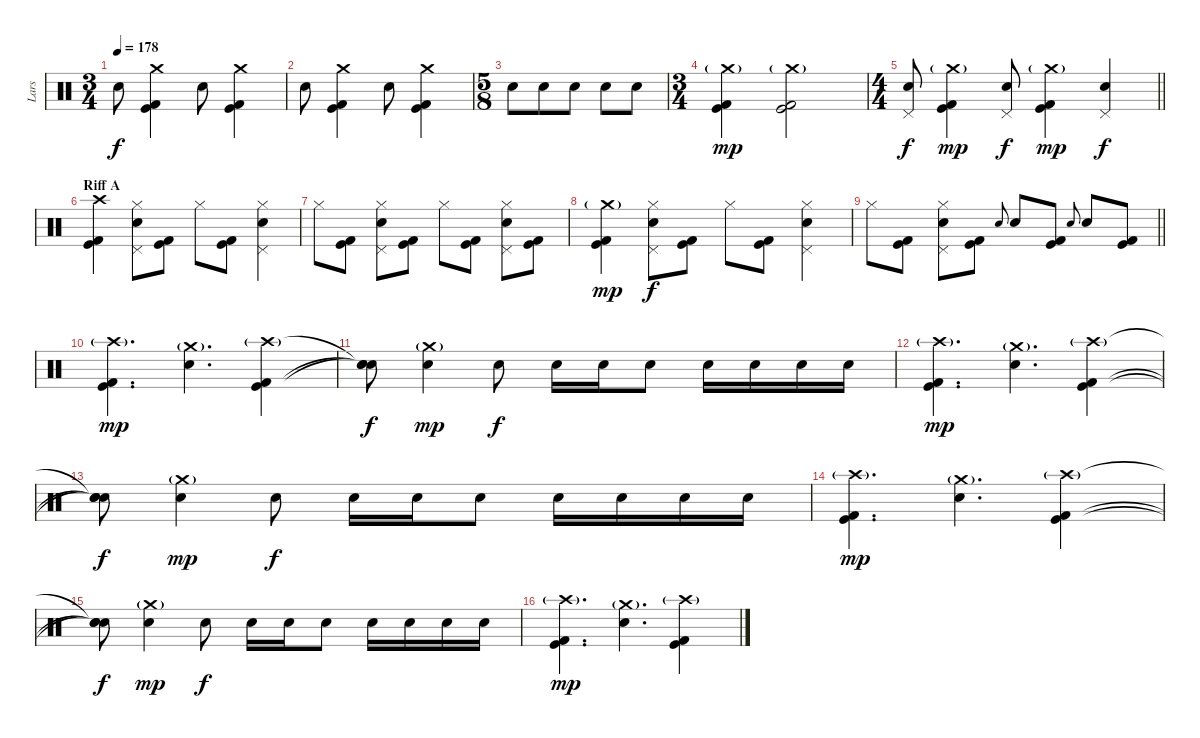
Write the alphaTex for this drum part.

\track ("Lars" "Lars") {instrument percussion}
\staff {score}
\articulation defaults
\ts (3 4)
\tempo 178
\clef neutral
\ks c "Electric Snare (hit)".8{dy f}
("Crash medium (hit)" "Kick (hit)" "Kick (hit) 2").4 "Electric Snare (hit)".8 ("Crash medium (hit)" "Kick (hit)" "Kick (hit) 2").4 |
"Electric Snare (hit)".8 ("Crash medium (hit)" "Kick (hit)" "Kick (hit) 2").4 "Electric Snare (hit)".8 ("Crash medium (hit)" "Kick (hit)" "Kick (hit) 2").4 |
\ts (5 8)
"Electric Snare (hit)".8 "Electric Snare (hit)".8 "Electric Snare (hit)".8 "Electric Snare (hit)".8 "Electric Snare (hit)".8 |
\ts (3 4)
("Crash medium (hit)"{g} "Kick (hit)" "Kick (hit) 2").4{dy mp} ("Crash medium (hit)"{g} "Kick (hit)" "Kick (hit) 2").2 |
\ts (4 4)
\barLineRight lightlight
("Pedal Hi-Hat (hit)" "Electric Snare (hit)").8{dy f} ("Crash medium (hit)"{g} "Kick (hit)" "Kick (hit) 2").4{dy mp} ("Pedal Hi-Hat (hit)" "Electric Snare (hit)").8{dy f} ("Crash medium (hit)"{g} "Kick (hit)" "Kick (hit) 2").4{dy mp} ("Pedal Hi-Hat (hit)" "Electric Snare (hit)").4{dy f} |
\section ("" "Riff A")
("Crash high (hit)" "Kick (hit)" "Kick (hit) 2").4 ("Hi-Hat (closed)" "Pedal Hi-Hat (hit)" "Electric Snare (hit)").8 ("Kick (hit)" "Kick (hit) 2").8 "Hi-Hat (closed)".8 ("Kick (hit)" "Kick (hit) 2").8 ("Hi-Hat (closed)" "Pedal Hi-Hat (hit)" "Electric Snare (hit)").4 |
"Hi-Hat (closed)".8 ("Kick (hit)" "Kick (hit) 2").8 ("Hi-Hat (closed)" "Pedal Hi-Hat (hit)" "Electric Snare (hit)").8 ("Kick (hit)" "Kick (hit) 2").8 "Hi-Hat (closed)".8 ("Kick (hit)" "Kick (hit) 2").8 ("Hi-Hat (closed)" "Pedal Hi-Hat (hit)" "Electric Snare (hit)").8 ("Kick (hit)" "Kick (hit) 2").8 |
("Crash medium (hit)"{g} "Kick (hit)" "Kick (hit) 2").4{dy mp} ("Hi-Hat (closed)" "Pedal Hi-Hat (hit)" "Electric Snare (hit)").8{dy f} ("Kick (hit)" "Kick (hit) 2").8 "Hi-Hat (closed)".8 ("Kick (hit)" "Kick (hit) 2").8 ("Hi-Hat (closed)" "Pedal Hi-Hat (hit)" "Electric Snare (hit)").4 |
\barLineRight lightlight "Hi-Hat (closed)".8
("Kick (hit)" "Kick (hit) 2").8 ("Hi-Hat (closed)" "Pedal Hi-Hat (hit)" "Electric Snare (hit)").8 ("Kick (hit)" "Kick (hit) 2").8 "Electric Snare (hit)".8{gr onbeat} "Electric Snare (hit)".8 ("Kick (hit)" "Kick (hit) 2").8 "Electric Snare (hit)".8{gr onbeat} "Electric Snare (hit)".8 ("Kick (hit)" "Kick (hit) 2").8 |
\section ("" "")
("Crash high (hit)"{g} "Kick (hit)" "Kick (hit) 2").4{d dy mp} ("Crash medium (hit)"{g} "Electric Snare (hit)").4{d} ("Crash high (hit)"{g} "Kick (hit)" "Kick (hit) 2").4 |
("Snare (hit)"{t} "Snare (hit)"{t} "Snare (hit)"{t}).8{dy f} ("Crash medium (hit)"{g} "Electric Snare (hit)").4{dy mp} "Electric Snare (hit)".8{dy f} "Electric Snare (hit)".16 "Electric Snare (hit)".16 "Electric Snare (hit)".8 "Electric Snare (hit)".16 "Electric Snare (hit)".16 "Electric Snare (hit)".16 "Electric Snare (hit)".16 |
("Crash high (hit)"{g} "Kick (hit)" "Kick (hit) 2").4{d dy mp} ("Crash medium (hit)"{g} "Electric Snare (hit)").4{d} ("Crash high (hit)"{g} "Kick (hit)" "Kick (hit) 2").4 |
("Snare (hit)"{t} "Snare (hit)"{t} "Snare (hit)"{t}).8{dy f} ("Crash medium (hit)"{g} "Electric Snare (hit)").4{dy mp} "Electric Snare (hit)".8{dy f} "Electric Snare (hit)".16 "Electric Snare (hit)".16 "Electric Snare (hit)".8 "Electric Snare (hit)".16 "Electric Snare (hit)".16 "Electric Snare (hit)".16 "Electric Snare (hit)".16 |
("Crash high (hit)"{g} "Kick (hit)" "Kick (hit) 2").4{d dy mp} ("Crash medium (hit)"{g} "Electric Snare (hit)").4{d} ("Crash high (hit)"{g} "Kick (hit)" "Kick (hit) 2").4 |
("Snare (hit)"{t} "Snare (hit)"{t} "Snare (hit)"{t}).8{dy f} ("Crash medium (hit)"{g} "Electric Snare (hit)").4{dy mp} "Electric Snare (hit)".8{dy f} "Electric Snare (hit)".16 "Electric Snare (hit)".16 "Electric Snare (hit)".8 "Electric Snare (hit)".16 "Electric Snare (hit)".16 "Electric Snare (hit)".16 "Electric Snare (hit)".16 |
("Crash high (hit)"{g} "Kick (hit)" "Kick (hit) 2").4{d dy mp} ("Crash medium (hit)"{g} "Electric Snare (hit)").4{d} ("Crash high (hit)"{g} "Kick (hit)" "Kick (hit) 2").4
